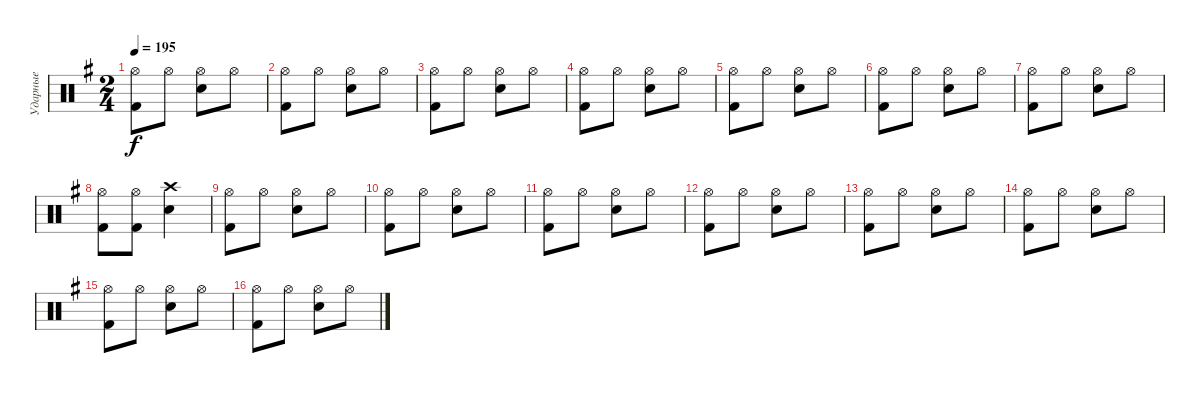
\track ("Ударные" "Ударные") {instrument percussion}
\staff {score}
\articulation defaults
\ts (2 4)
\tempo 195
\clef neutral
\ks eminor
("Kick (hit) 2" "Hi-Hat (open)").8{dy f} "Hi-Hat (open)".8 ("Snare (hit) 2" "Hi-Hat (open)").8 "Hi-Hat (open)".8 |
("Kick (hit) 2" "Hi-Hat (open)").8 "Hi-Hat (open)".8 ("Snare (hit) 2" "Hi-Hat (open)").8 "Hi-Hat (open)".8 |
("Kick (hit) 2" "Hi-Hat (open)").8 "Hi-Hat (open)".8 ("Snare (hit) 2" "Hi-Hat (open)").8 "Hi-Hat (open)".8 |
("Kick (hit) 2" "Hi-Hat (open)").8 "Hi-Hat (open)".8 ("Snare (hit) 2" "Hi-Hat (open)").8 "Hi-Hat (open)".8 |
("Kick (hit) 2" "Hi-Hat (open)").8 "Hi-Hat (open)".8 ("Snare (hit) 2" "Hi-Hat (open)").8 "Hi-Hat (open)".8 |
("Kick (hit) 2" "Hi-Hat (open)").8 "Hi-Hat (open)".8 ("Snare (hit) 2" "Hi-Hat (open)").8 "Hi-Hat (open)".8 |
("Kick (hit) 2" "Hi-Hat (open)").8 "Hi-Hat (open)".8 ("Snare (hit) 2" "Hi-Hat (open)").8 "Hi-Hat (open)".8 |
("Kick (hit) 2" "Hi-Hat (open)").8 ("Kick (hit) 2" "Hi-Hat (open)").8 ("Snare (hit) 2" "Crash high (hit)").4 |
("Kick (hit) 2" "Hi-Hat (open)").8 "Hi-Hat (open)".8 ("Snare (hit) 2" "Hi-Hat (open)").8 "Hi-Hat (open)".8 |
("Kick (hit) 2" "Hi-Hat (open)").8 "Hi-Hat (open)".8 ("Snare (hit) 2" "Hi-Hat (open)").8 "Hi-Hat (open)".8 |
("Kick (hit) 2" "Hi-Hat (open)").8 "Hi-Hat (open)".8 ("Snare (hit) 2" "Hi-Hat (open)").8 "Hi-Hat (open)".8 |
("Kick (hit) 2" "Hi-Hat (open)").8 "Hi-Hat (open)".8 ("Snare (hit) 2" "Hi-Hat (open)").8 "Hi-Hat (open)".8 |
("Kick (hit) 2" "Hi-Hat (open)").8 "Hi-Hat (open)".8 ("Snare (hit) 2" "Hi-Hat (open)").8 "Hi-Hat (open)".8 |
("Kick (hit) 2" "Hi-Hat (open)").8 "Hi-Hat (open)".8 ("Snare (hit) 2" "Hi-Hat (open)").8 "Hi-Hat (open)".8 |
("Kick (hit) 2" "Hi-Hat (open)").8 "Hi-Hat (open)".8 ("Snare (hit) 2" "Hi-Hat (open)").8 "Hi-Hat (open)".8 |
("Kick (hit) 2" "Hi-Hat (open)").8 "Hi-Hat (open)".8 ("Snare (hit) 2" "Hi-Hat (open)").8 "Hi-Hat (open)".8
